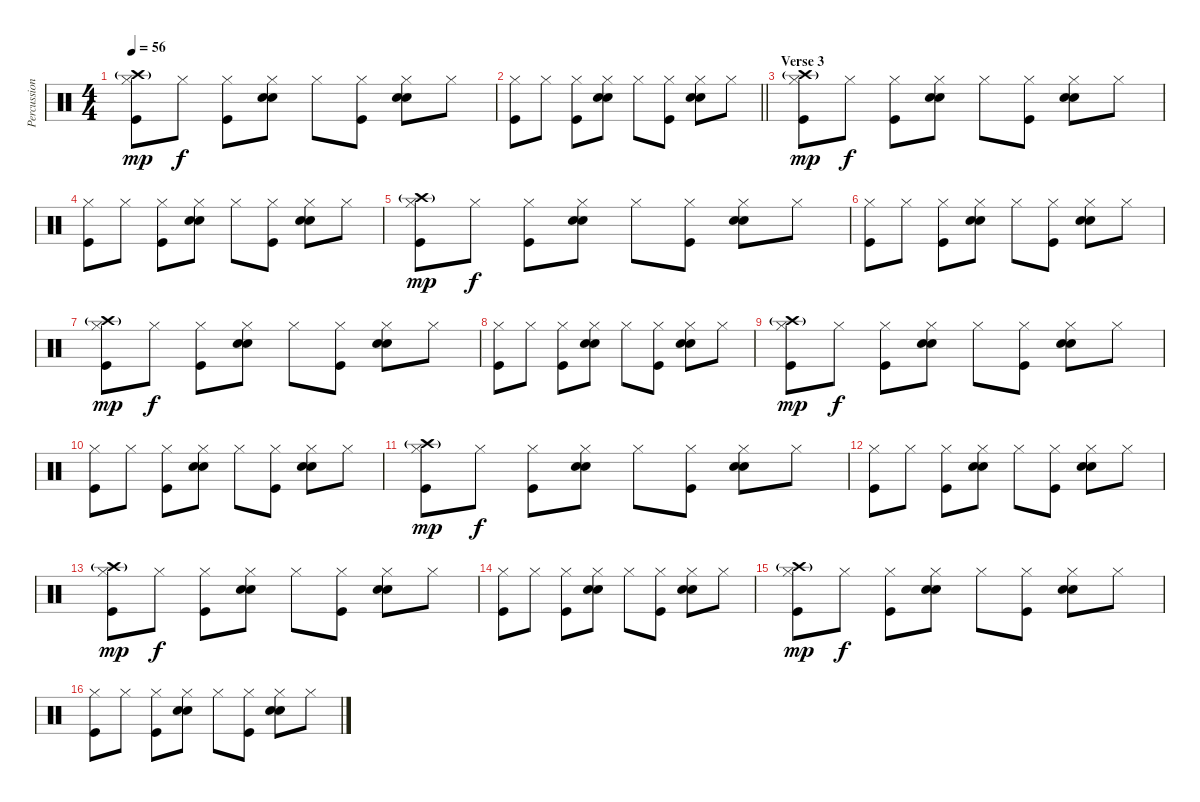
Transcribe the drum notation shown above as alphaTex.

\track ("Percussion" "Percussion") {instrument percussion}
\staff {score}
\articulation defaults
\ts (4 4)
\tempo 56
\clef neutral
\ks c
("Hi-Hat (closed)" "Crash high (hit)"{g} "Kick (hit)").8{dy mp} "Hi-Hat (closed)".8{dy f} ("Hi-Hat (closed)" "Kick (hit)").8 ("Hi-Hat (closed)" "Snare (hit) 2" "Snare (hit) 2").8 "Hi-Hat (closed)".8 ("Hi-Hat (closed)" "Kick (hit)").8 ("Hi-Hat (closed)" "Snare (hit) 2" "Snare (hit) 2").8 "Hi-Hat (closed)".8 |
\barLineRight lightlight
("Hi-Hat (closed)" "Kick (hit)").8 "Hi-Hat (closed)".8 ("Hi-Hat (closed)" "Kick (hit)").8 ("Hi-Hat (closed)" "Snare (hit) 2" "Snare (hit) 2").8 "Hi-Hat (closed)".8 ("Hi-Hat (closed)" "Kick (hit)").8 ("Hi-Hat (closed)" "Snare (hit) 2" "Snare (hit) 2").8 "Hi-Hat (closed)".8 |
\section ("" "Verse 3")
("Hi-Hat (closed)" "Crash high (hit)"{g} "Kick (hit)").8{dy mp} "Hi-Hat (closed)".8{dy f} ("Hi-Hat (closed)" "Kick (hit)").8 ("Hi-Hat (closed)" "Snare (hit) 2" "Snare (hit) 2").8 "Hi-Hat (closed)".8 ("Hi-Hat (closed)" "Kick (hit)").8 ("Hi-Hat (closed)" "Snare (hit) 2" "Snare (hit) 2").8 "Hi-Hat (closed)".8 |
("Hi-Hat (closed)" "Kick (hit)").8 "Hi-Hat (closed)".8 ("Hi-Hat (closed)" "Kick (hit)").8 ("Hi-Hat (closed)" "Snare (hit) 2" "Snare (hit) 2").8 "Hi-Hat (closed)".8 ("Hi-Hat (closed)" "Kick (hit)").8 ("Hi-Hat (closed)" "Snare (hit) 2" "Snare (hit) 2").8 "Hi-Hat (closed)".8 |
("Hi-Hat (closed)" "Crash high (hit)"{g} "Kick (hit)").8{dy mp} "Hi-Hat (closed)".8{dy f} ("Hi-Hat (closed)" "Kick (hit)").8 ("Hi-Hat (closed)" "Snare (hit) 2" "Snare (hit) 2").8 "Hi-Hat (closed)".8 ("Hi-Hat (closed)" "Kick (hit)").8 ("Hi-Hat (closed)" "Snare (hit) 2" "Snare (hit) 2").8 "Hi-Hat (closed)".8 |
("Hi-Hat (closed)" "Kick (hit)").8 "Hi-Hat (closed)".8 ("Hi-Hat (closed)" "Kick (hit)").8 ("Hi-Hat (closed)" "Snare (hit) 2" "Snare (hit) 2").8 "Hi-Hat (closed)".8 ("Hi-Hat (closed)" "Kick (hit)").8 ("Hi-Hat (closed)" "Snare (hit) 2" "Snare (hit) 2").8 "Hi-Hat (closed)".8 |
("Hi-Hat (closed)" "Crash high (hit)"{g} "Kick (hit)").8{dy mp} "Hi-Hat (closed)".8{dy f} ("Hi-Hat (closed)" "Kick (hit)").8 ("Hi-Hat (closed)" "Snare (hit) 2" "Snare (hit) 2").8 "Hi-Hat (closed)".8 ("Hi-Hat (closed)" "Kick (hit)").8 ("Hi-Hat (closed)" "Snare (hit) 2" "Snare (hit) 2").8 "Hi-Hat (closed)".8 |
("Hi-Hat (closed)" "Kick (hit)").8 "Hi-Hat (closed)".8 ("Hi-Hat (closed)" "Kick (hit)").8 ("Hi-Hat (closed)" "Snare (hit) 2" "Snare (hit) 2").8 "Hi-Hat (closed)".8 ("Hi-Hat (closed)" "Kick (hit)").8 ("Hi-Hat (closed)" "Snare (hit) 2" "Snare (hit) 2").8 "Hi-Hat (closed)".8 |
("Hi-Hat (closed)" "Crash high (hit)"{g} "Kick (hit)").8{dy mp} "Hi-Hat (closed)".8{dy f} ("Hi-Hat (closed)" "Kick (hit)").8 ("Hi-Hat (closed)" "Snare (hit) 2" "Snare (hit) 2").8 "Hi-Hat (closed)".8 ("Hi-Hat (closed)" "Kick (hit)").8 ("Hi-Hat (closed)" "Snare (hit) 2" "Snare (hit) 2").8 "Hi-Hat (closed)".8 |
("Hi-Hat (closed)" "Kick (hit)").8 "Hi-Hat (closed)".8 ("Hi-Hat (closed)" "Kick (hit)").8 ("Hi-Hat (closed)" "Snare (hit) 2" "Snare (hit) 2").8 "Hi-Hat (closed)".8 ("Hi-Hat (closed)" "Kick (hit)").8 ("Hi-Hat (closed)" "Snare (hit) 2" "Snare (hit) 2").8 "Hi-Hat (closed)".8 |
("Hi-Hat (closed)" "Crash high (hit)"{g} "Kick (hit)").8{dy mp} "Hi-Hat (closed)".8{dy f} ("Hi-Hat (closed)" "Kick (hit)").8 ("Hi-Hat (closed)" "Snare (hit) 2" "Snare (hit) 2").8 "Hi-Hat (closed)".8 ("Hi-Hat (closed)" "Kick (hit)").8 ("Hi-Hat (closed)" "Snare (hit) 2" "Snare (hit) 2").8 "Hi-Hat (closed)".8 |
("Hi-Hat (closed)" "Kick (hit)").8 "Hi-Hat (closed)".8 ("Hi-Hat (closed)" "Kick (hit)").8 ("Hi-Hat (closed)" "Snare (hit) 2" "Snare (hit) 2").8 "Hi-Hat (closed)".8 ("Hi-Hat (closed)" "Kick (hit)").8 ("Hi-Hat (closed)" "Snare (hit) 2" "Snare (hit) 2").8 "Hi-Hat (closed)".8 |
("Hi-Hat (closed)" "Crash high (hit)"{g} "Kick (hit)").8{dy mp} "Hi-Hat (closed)".8{dy f} ("Hi-Hat (closed)" "Kick (hit)").8 ("Hi-Hat (closed)" "Snare (hit) 2" "Snare (hit) 2").8 "Hi-Hat (closed)".8 ("Hi-Hat (closed)" "Kick (hit)").8 ("Hi-Hat (closed)" "Snare (hit) 2" "Snare (hit) 2").8 "Hi-Hat (closed)".8 |
("Hi-Hat (closed)" "Kick (hit)").8 "Hi-Hat (closed)".8 ("Hi-Hat (closed)" "Kick (hit)").8 ("Hi-Hat (closed)" "Snare (hit) 2" "Snare (hit) 2").8 "Hi-Hat (closed)".8 ("Hi-Hat (closed)" "Kick (hit)").8 ("Hi-Hat (closed)" "Snare (hit) 2" "Snare (hit) 2").8 "Hi-Hat (closed)".8 |
("Hi-Hat (closed)" "Crash high (hit)"{g} "Kick (hit)").8{dy mp} "Hi-Hat (closed)".8{dy f} ("Hi-Hat (closed)" "Kick (hit)").8 ("Hi-Hat (closed)" "Snare (hit) 2" "Snare (hit) 2").8 "Hi-Hat (closed)".8 ("Hi-Hat (closed)" "Kick (hit)").8 ("Hi-Hat (closed)" "Snare (hit) 2" "Snare (hit) 2").8 "Hi-Hat (closed)".8 |
("Hi-Hat (closed)" "Kick (hit)").8 "Hi-Hat (closed)".8 ("Hi-Hat (closed)" "Kick (hit)").8 ("Hi-Hat (closed)" "Snare (hit) 2" "Snare (hit) 2").8 "Hi-Hat (closed)".8 ("Hi-Hat (closed)" "Kick (hit)").8 ("Hi-Hat (closed)" "Snare (hit) 2" "Snare (hit) 2").8 "Hi-Hat (closed)".8
